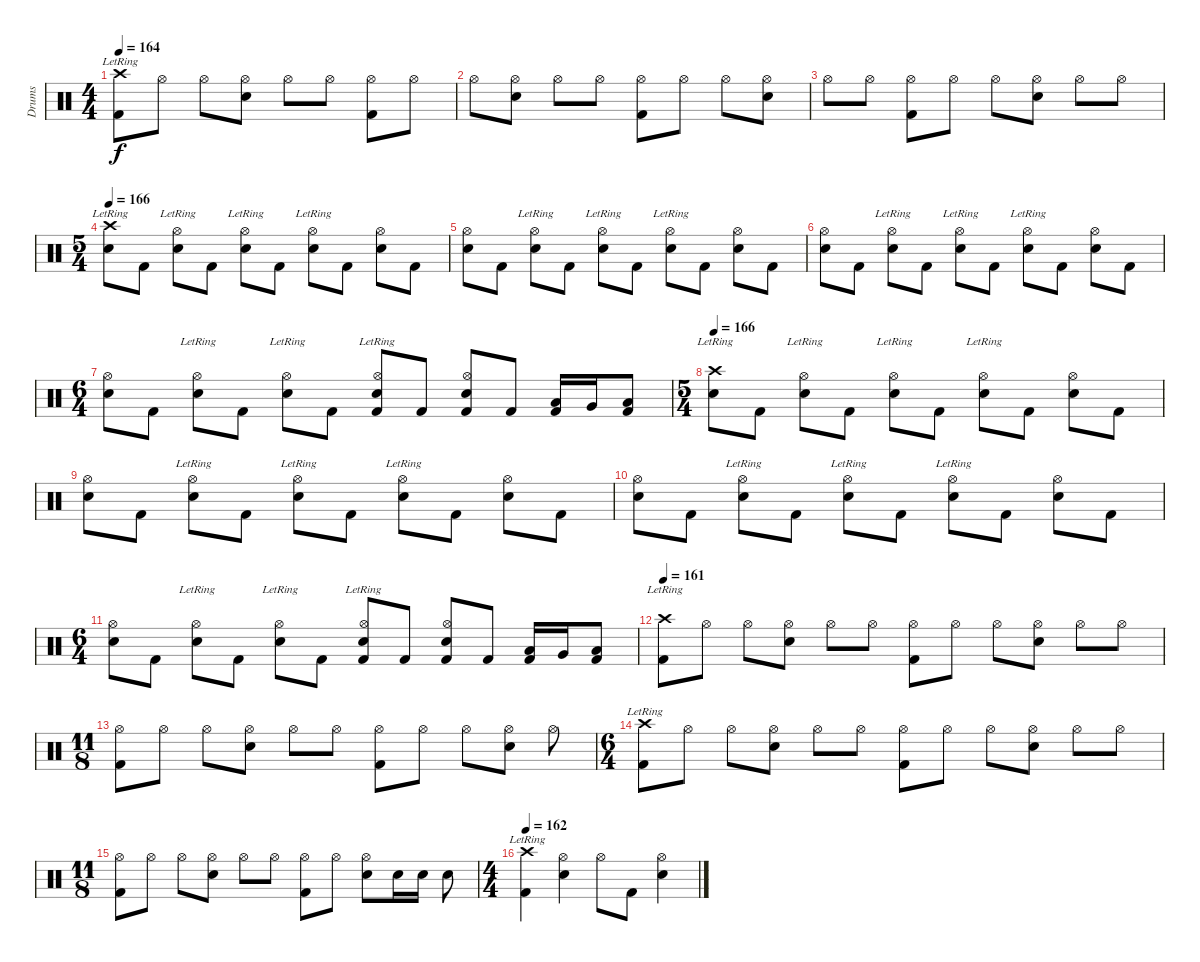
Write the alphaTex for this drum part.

\track ("Drums" "Drums") {instrument percussion}
\staff {score}
\articulation defaults
\ts (4 4)
\tempo 164
\clef neutral
\ks c
("Crash high (hit)"{lr} "Kick (hit) 2").8{dy f} "Hi-Hat (open)".8 "Hi-Hat (open)".8 ("Hi-Hat (open)" "Snare (hit) 2").8 "Hi-Hat (open)".8 "Hi-Hat (open)".8 ("Hi-Hat (open)" "Kick (hit) 2").8 "Hi-Hat (open)".8 |
"Hi-Hat (open)".8 ("Hi-Hat (open)" "Snare (hit) 2").8 "Hi-Hat (open)".8 "Hi-Hat (open)".8 ("Hi-Hat (open)" "Kick (hit) 2").8 "Hi-Hat (open)".8 "Hi-Hat (open)".8 ("Hi-Hat (open)" "Snare (hit) 2").8 |
"Hi-Hat (open)".8 "Hi-Hat (open)".8 ("Hi-Hat (open)" "Kick (hit) 2").8 "Hi-Hat (open)".8 "Hi-Hat (open)".8 ("Hi-Hat (open)" "Snare (hit) 2").8 "Hi-Hat (open)".8 "Hi-Hat (open)".8 |
\ts (5 4)
\tempo 166
("Crash high (hit)"{lr} "Snare (hit) 2").8 "Kick (hit) 2".8 ("Hi-Hat (open)"{lr} "Snare (hit) 2").8 "Kick (hit) 2".8 ("Hi-Hat (open)"{lr} "Snare (hit) 2").8 "Kick (hit) 2".8 ("Hi-Hat (open)"{lr} "Snare (hit) 2").8 "Kick (hit) 2".8 ("Hi-Hat (open)" "Snare (hit) 2").8 "Kick (hit) 2".8 |
("Hi-Hat (open)" "Snare (hit) 2").8 "Kick (hit) 2".8 ("Hi-Hat (open)"{lr} "Snare (hit) 2").8 "Kick (hit) 2".8 ("Hi-Hat (open)"{lr} "Snare (hit) 2").8 "Kick (hit) 2".8 ("Hi-Hat (open)"{lr} "Snare (hit) 2").8 "Kick (hit) 2".8 ("Hi-Hat (open)" "Snare (hit) 2").8 "Kick (hit) 2".8 |
("Hi-Hat (open)" "Snare (hit) 2").8 "Kick (hit) 2".8 ("Hi-Hat (open)"{lr} "Snare (hit) 2").8 "Kick (hit) 2".8 ("Hi-Hat (open)"{lr} "Snare (hit) 2").8 "Kick (hit) 2".8 ("Hi-Hat (open)"{lr} "Snare (hit) 2").8 "Kick (hit) 2".8 ("Hi-Hat (open)" "Snare (hit) 2").8 "Kick (hit) 2".8 |
\ts (6 4)
("Hi-Hat (open)" "Snare (hit) 2").8 "Kick (hit) 2".8 ("Hi-Hat (open)"{lr} "Snare (hit) 2").8 "Kick (hit) 2".8 ("Hi-Hat (open)"{lr} "Snare (hit) 2").8 "Kick (hit) 2".8 ("Hi-Hat (open)"{lr} "Snare (hit) 2" "Kick (hit) 2").8 "Kick (hit) 2".8 ("Hi-Hat (open)" "Snare (hit) 2" "Kick (hit) 2").8 "Kick (hit) 2".8 ("Low Tom (hit)" "Kick (hit) 2").16 "Very Low Tom (hit)".16 ("Low Floor Tom (hit)" "Kick (hit) 2").8 |
\ts (5 4)
\tempo 166
("Crash high (hit)"{lr} "Snare (hit) 2").8 "Kick (hit) 2".8 ("Hi-Hat (open)"{lr} "Snare (hit) 2").8 "Kick (hit) 2".8 ("Hi-Hat (open)"{lr} "Snare (hit) 2").8 "Kick (hit) 2".8 ("Hi-Hat (open)"{lr} "Snare (hit) 2").8 "Kick (hit) 2".8 ("Hi-Hat (open)" "Snare (hit) 2").8 "Kick (hit) 2".8 |
("Hi-Hat (open)" "Snare (hit) 2").8 "Kick (hit) 2".8 ("Hi-Hat (open)"{lr} "Snare (hit) 2").8 "Kick (hit) 2".8 ("Hi-Hat (open)"{lr} "Snare (hit) 2").8 "Kick (hit) 2".8 ("Hi-Hat (open)"{lr} "Snare (hit) 2").8 "Kick (hit) 2".8 ("Hi-Hat (open)" "Snare (hit) 2").8 "Kick (hit) 2".8 |
("Hi-Hat (open)" "Snare (hit) 2").8 "Kick (hit) 2".8 ("Hi-Hat (open)"{lr} "Snare (hit) 2").8 "Kick (hit) 2".8 ("Hi-Hat (open)"{lr} "Snare (hit) 2").8 "Kick (hit) 2".8 ("Hi-Hat (open)"{lr} "Snare (hit) 2").8 "Kick (hit) 2".8 ("Hi-Hat (open)" "Snare (hit) 2").8 "Kick (hit) 2".8 |
\ts (6 4)
("Hi-Hat (open)" "Snare (hit) 2").8 "Kick (hit) 2".8 ("Hi-Hat (open)"{lr} "Snare (hit) 2").8 "Kick (hit) 2".8 ("Hi-Hat (open)"{lr} "Snare (hit) 2").8 "Kick (hit) 2".8 ("Hi-Hat (open)"{lr} "Snare (hit) 2" "Kick (hit) 2").8 "Kick (hit) 2".8 ("Hi-Hat (open)" "Snare (hit) 2" "Kick (hit) 2").8 "Kick (hit) 2".8 ("Low Tom (hit)" "Kick (hit) 2").16 "Very Low Tom (hit)".16 ("Low Floor Tom (hit)" "Kick (hit) 2").8 |
\tempo 160
\tempo 161
("Crash high (hit)"{lr} "Kick (hit) 2").8 "Hi-Hat (open)".8 "Hi-Hat (open)".8 ("Hi-Hat (open)" "Snare (hit) 2").8 "Hi-Hat (open)".8 "Hi-Hat (open)".8 ("Hi-Hat (open)" "Kick (hit) 2").8 "Hi-Hat (open)".8 "Hi-Hat (open)".8 ("Hi-Hat (open)" "Snare (hit) 2").8 "Hi-Hat (open)".8 "Hi-Hat (open)".8 |
\ts (11 8)
("Hi-Hat (open)" "Kick (hit) 2").8 "Hi-Hat (open)".8 "Hi-Hat (open)".8 ("Hi-Hat (open)" "Snare (hit) 2").8 "Hi-Hat (open)".8 "Hi-Hat (open)".8 ("Hi-Hat (open)" "Kick (hit) 2").8 "Hi-Hat (open)".8 "Hi-Hat (open)".8 ("Hi-Hat (open)" "Snare (hit) 2").8 "Hi-Hat (open)".8 |
\ts (6 4)
("Crash high (hit)"{lr} "Kick (hit) 2").8 "Hi-Hat (open)".8 "Hi-Hat (open)".8 ("Hi-Hat (open)" "Snare (hit) 2").8 "Hi-Hat (open)".8 "Hi-Hat (open)".8 ("Hi-Hat (open)" "Kick (hit) 2").8 "Hi-Hat (open)".8 "Hi-Hat (open)".8 ("Hi-Hat (open)" "Snare (hit) 2").8 "Hi-Hat (open)".8 "Hi-Hat (open)".8 |
\ts (11 8)
("Hi-Hat (open)" "Kick (hit) 2").8 "Hi-Hat (open)".8 "Hi-Hat (open)".8 ("Hi-Hat (open)" "Snare (hit) 2").8 "Hi-Hat (open)".8 "Hi-Hat (open)".8 ("Hi-Hat (open)" "Kick (hit) 2").8 "Hi-Hat (open)".8 ("Hi-Hat (open)" "Snare (hit) 2").8 "Snare (hit) 2".16 "Snare (hit) 2".16 "Snare (hit) 2".8 |
\ts (4 4)
\tempo 162
("Crash high (hit)"{lr} "Kick (hit) 2").4 ("Hi-Hat (open)" "Snare (hit) 2").4 "Hi-Hat (open)".8 "Kick (hit) 2".8 ("Hi-Hat (open)" "Snare (hit) 2").4
